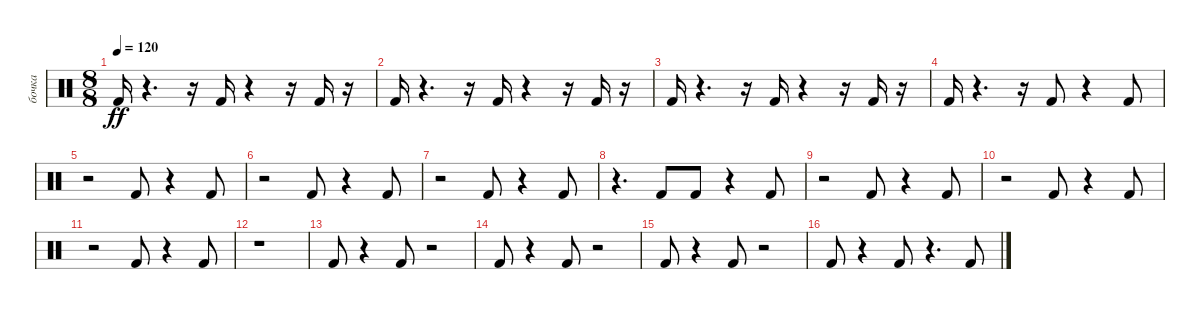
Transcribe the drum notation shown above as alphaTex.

\track ("бочка" "бочка") {instrument percussion}
\staff {score}
\articulation defaults
\ts (8 8)
\tempo 120
\clef neutral
\ks c "Kick (hit) 2".16{dy ff}
r.4{d} r.16 "Kick (hit) 2".16 r.4 r.16 "Kick (hit) 2".16 r.16 |
"Kick (hit) 2".16 r.4{d} r.16 "Kick (hit) 2".16 r.4 r.16 "Kick (hit) 2".16 r.16 |
"Kick (hit) 2".16 r.4{d} r.16 "Kick (hit) 2".16 r.4 r.16 "Kick (hit) 2".16 r.16 |
"Kick (hit) 2".16 r.4{d} r.16 "Kick (hit) 2".8 r.4 "Kick (hit) 2".8 |
r.2 "Kick (hit) 2".8 r.4 "Kick (hit) 2".8 |
r.2 "Kick (hit) 2".8 r.4 "Kick (hit) 2".8 |
r.2 "Kick (hit) 2".8 r.4 "Kick (hit) 2".8 |
r.4{d} "Kick (hit) 2".8 "Kick (hit) 2".8 r.4 "Kick (hit) 2".8 |
r.2 "Kick (hit) 2".8 r.4 "Kick (hit) 2".8 |
r.2 "Kick (hit) 2".8 r.4 "Kick (hit) 2".8 |
r.2 "Kick (hit) 2".8 r.4 "Kick (hit) 2".8 |
r.1 |
"Kick (hit) 2".8 r.4 "Kick (hit) 2".8 r.2 |
"Kick (hit) 2".8 r.4 "Kick (hit) 2".8 r.2 |
"Kick (hit) 2".8 r.4 "Kick (hit) 2".8 r.2 |
"Kick (hit) 2".8 r.4 "Kick (hit) 2".8 r.4{d} "Kick (hit) 2".8
